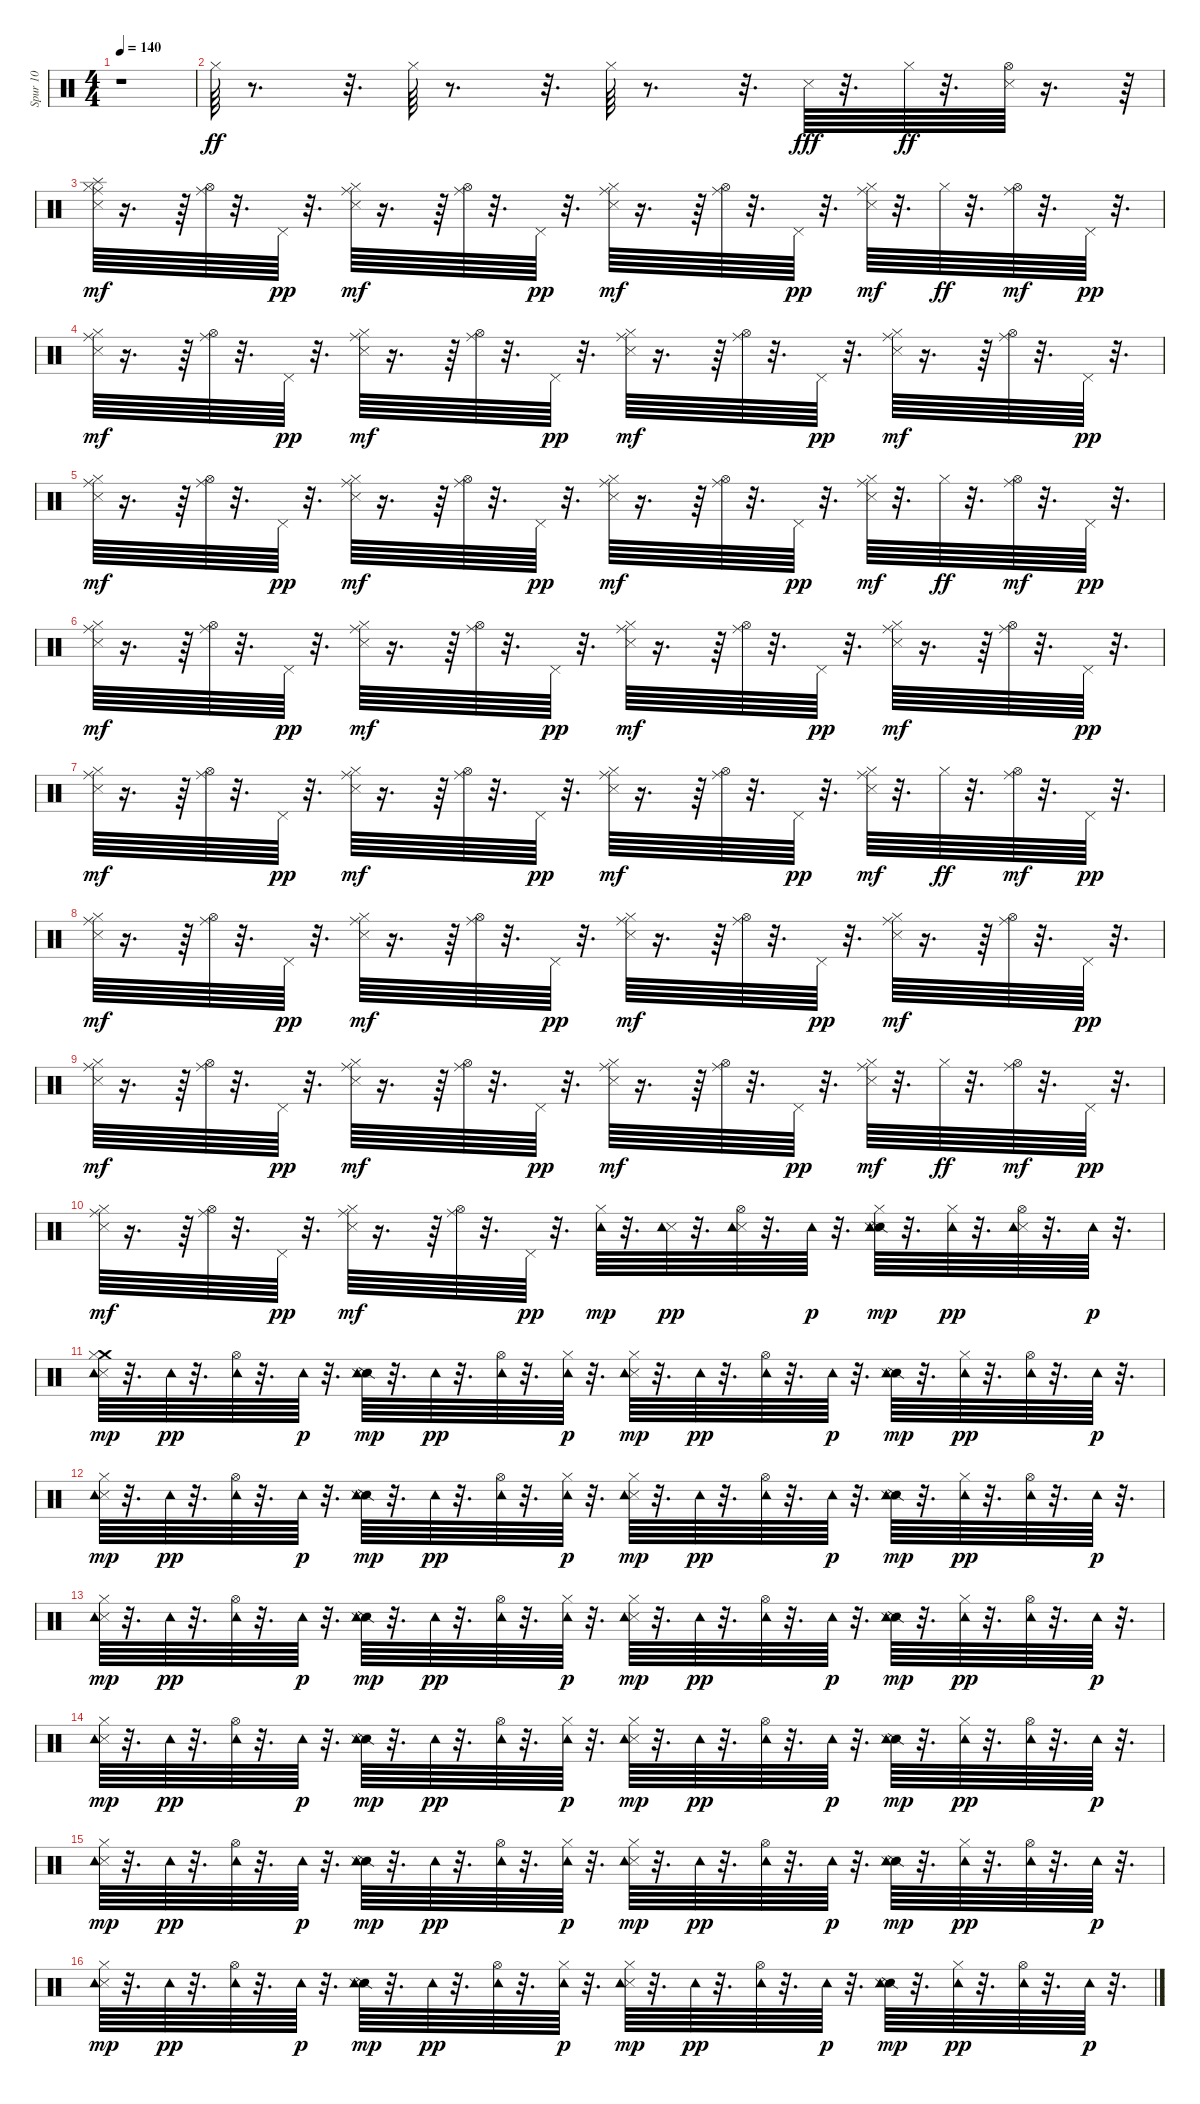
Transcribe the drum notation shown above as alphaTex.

\track ("Spur 10" "Spur 10") {instrument percussion}
\staff {score}
\articulation defaults
\ts (4 4)
\tempo 140
\clef neutral
\ks c
r.1{dy ff} |
"Hi-Hat (closed)".64 r.8{d} r.32{d} "Hi-Hat (closed)".64 r.8{d} r.32{d} "Hi-Hat (closed)".64 r.8{d} r.32{d} "Metronome (hit)".64{dy fff} r.32{d} "Hi-Hat (closed)".64{dy ff} r.32{d} ("Metronome (hit)" "Hi-Hat (open)").64 r.16{d} r.64 |
("Splash (hit)" "Metronome (hit)" "Hi-Hat (closed)" "Ride (middle)").64{dy mf} r.16{d} r.64 ("Hi-Hat (open)" "Ride (middle)").64 r.32{d} "Pedal Hi-Hat (hit)".64{dy pp} r.32{d} ("Metronome (hit)" "Hi-Hat (closed)" "Ride (middle)").64{dy mf} r.16{d} r.64 ("Hi-Hat (open)" "Ride (middle)").64 r.32{d} "Pedal Hi-Hat (hit)".64{dy pp} r.32{d} ("Metronome (hit)" "Hi-Hat (closed)" "Ride (middle)").64{dy mf} r.16{d} r.64 ("Hi-Hat (open)" "Ride (middle)").64 r.32{d} "Pedal Hi-Hat (hit)".64{dy pp} r.32{d} ("Metronome (hit)" "Hi-Hat (closed)" "Ride (middle)").64{dy mf} r.32{d} "Hi-Hat (closed)".64{dy ff} r.32{d} ("Hi-Hat (open)" "Ride (middle)").64{dy mf} r.32{d} "Pedal Hi-Hat (hit)".64{dy pp} r.32{d} |
("Metronome (hit)" "Hi-Hat (closed)" "Ride (middle)").64{dy mf} r.16{d} r.64 ("Hi-Hat (open)" "Ride (middle)").64 r.32{d} "Pedal Hi-Hat (hit)".64{dy pp} r.32{d} ("Metronome (hit)" "Hi-Hat (closed)" "Ride (middle)").64{dy mf} r.16{d} r.64 ("Hi-Hat (open)" "Ride (middle)").64 r.32{d} "Pedal Hi-Hat (hit)".64{dy pp} r.32{d} ("Metronome (hit)" "Hi-Hat (closed)" "Ride (middle)").64{dy mf} r.16{d} r.64 ("Hi-Hat (open)" "Ride (middle)").64 r.32{d} "Pedal Hi-Hat (hit)".64{dy pp} r.32{d} ("Metronome (hit)" "Hi-Hat (closed)" "Ride (middle)").64{dy mf} r.16{d} r.64 ("Hi-Hat (open)" "Ride (middle)").64 r.32{d} "Pedal Hi-Hat (hit)".64{dy pp} r.32{d} |
("Metronome (hit)" "Hi-Hat (closed)" "Ride (middle)").64{dy mf} r.16{d} r.64 ("Hi-Hat (open)" "Ride (middle)").64 r.32{d} "Pedal Hi-Hat (hit)".64{dy pp} r.32{d} ("Metronome (hit)" "Hi-Hat (closed)" "Ride (middle)").64{dy mf} r.16{d} r.64 ("Hi-Hat (open)" "Ride (middle)").64 r.32{d} "Pedal Hi-Hat (hit)".64{dy pp} r.32{d} ("Metronome (hit)" "Hi-Hat (closed)" "Ride (middle)").64{dy mf} r.16{d} r.64 ("Hi-Hat (open)" "Ride (middle)").64 r.32{d} "Pedal Hi-Hat (hit)".64{dy pp} r.32{d} ("Metronome (hit)" "Hi-Hat (closed)" "Ride (middle)").64{dy mf} r.32{d} "Hi-Hat (closed)".64{dy ff} r.32{d} ("Hi-Hat (open)" "Ride (middle)").64{dy mf} r.32{d} "Pedal Hi-Hat (hit)".64{dy pp} r.32{d} |
("Metronome (hit)" "Hi-Hat (closed)" "Ride (middle)").64{dy mf} r.16{d} r.64 ("Hi-Hat (open)" "Ride (middle)").64 r.32{d} "Pedal Hi-Hat (hit)".64{dy pp} r.32{d} ("Metronome (hit)" "Hi-Hat (closed)" "Ride (middle)").64{dy mf} r.16{d} r.64 ("Hi-Hat (open)" "Ride (middle)").64 r.32{d} "Pedal Hi-Hat (hit)".64{dy pp} r.32{d} ("Metronome (hit)" "Hi-Hat (closed)" "Ride (middle)").64{dy mf} r.16{d} r.64 ("Hi-Hat (open)" "Ride (middle)").64 r.32{d} "Pedal Hi-Hat (hit)".64{dy pp} r.32{d} ("Metronome (hit)" "Hi-Hat (closed)" "Ride (middle)").64{dy mf} r.16{d} r.64 ("Hi-Hat (open)" "Ride (middle)").64 r.32{d} "Pedal Hi-Hat (hit)".64{dy pp} r.32{d} |
("Metronome (hit)" "Hi-Hat (closed)" "Ride (middle)").64{dy mf} r.16{d} r.64 ("Hi-Hat (open)" "Ride (middle)").64 r.32{d} "Pedal Hi-Hat (hit)".64{dy pp} r.32{d} ("Metronome (hit)" "Hi-Hat (closed)" "Ride (middle)").64{dy mf} r.16{d} r.64 ("Hi-Hat (open)" "Ride (middle)").64 r.32{d} "Pedal Hi-Hat (hit)".64{dy pp} r.32{d} ("Metronome (hit)" "Hi-Hat (closed)" "Ride (middle)").64{dy mf} r.16{d} r.64 ("Hi-Hat (open)" "Ride (middle)").64 r.32{d} "Pedal Hi-Hat (hit)".64{dy pp} r.32{d} ("Metronome (hit)" "Hi-Hat (closed)" "Ride (middle)").64{dy mf} r.32{d} "Hi-Hat (closed)".64{dy ff} r.32{d} ("Hi-Hat (open)" "Ride (middle)").64{dy mf} r.32{d} "Pedal Hi-Hat (hit)".64{dy pp} r.32{d} |
("Metronome (hit)" "Hi-Hat (closed)" "Ride (middle)").64{dy mf} r.16{d} r.64 ("Hi-Hat (open)" "Ride (middle)").64 r.32{d} "Pedal Hi-Hat (hit)".64{dy pp} r.32{d} ("Metronome (hit)" "Hi-Hat (closed)" "Ride (middle)").64{dy mf} r.16{d} r.64 ("Hi-Hat (open)" "Ride (middle)").64 r.32{d} "Pedal Hi-Hat (hit)".64{dy pp} r.32{d} ("Metronome (hit)" "Hi-Hat (closed)" "Ride (middle)").64{dy mf} r.16{d} r.64 ("Hi-Hat (open)" "Ride (middle)").64 r.32{d} "Pedal Hi-Hat (hit)".64{dy pp} r.32{d} ("Metronome (hit)" "Hi-Hat (closed)" "Ride (middle)").64{dy mf} r.16{d} r.64 ("Hi-Hat (open)" "Ride (middle)").64 r.32{d} "Pedal Hi-Hat (hit)".64{dy pp} r.32{d} |
("Metronome (hit)" "Hi-Hat (closed)" "Ride (middle)").64{dy mf} r.16{d} r.64 ("Hi-Hat (open)" "Ride (middle)").64 r.32{d} "Pedal Hi-Hat (hit)".64{dy pp} r.32{d} ("Metronome (hit)" "Hi-Hat (closed)" "Ride (middle)").64{dy mf} r.16{d} r.64 ("Hi-Hat (open)" "Ride (middle)").64 r.32{d} "Pedal Hi-Hat (hit)".64{dy pp} r.32{d} ("Metronome (hit)" "Hi-Hat (closed)" "Ride (middle)").64{dy mf} r.16{d} r.64 ("Hi-Hat (open)" "Ride (middle)").64 r.32{d} "Pedal Hi-Hat (hit)".64{dy pp} r.32{d} ("Metronome (hit)" "Hi-Hat (closed)" "Ride (middle)").64{dy mf} r.32{d} "Hi-Hat (closed)".64{dy ff} r.32{d} ("Hi-Hat (open)" "Ride (middle)").64{dy mf} r.32{d} "Pedal Hi-Hat (hit)".64{dy pp} r.32{d} |
("Metronome (hit)" "Hi-Hat (closed)" "Ride (middle)").64{dy mf} r.16{d} r.64 ("Hi-Hat (open)" "Ride (middle)").64 r.32{d} "Pedal Hi-Hat (hit)".64{dy pp} r.32{d} ("Metronome (hit)" "Hi-Hat (closed)" "Ride (middle)").64{dy mf} r.16{d} r.64 ("Hi-Hat (open)" "Ride (middle)").64 r.32{d} "Pedal Hi-Hat (hit)".64{dy pp} r.32{d} ("Hi-Hat (closed)" "Tambourine (hit)").64{dy mp} r.32{d} ("Metronome (hit)" "Tambourine (hit)").64{dy pp} r.32{d} ("Metronome (hit)" "Hi-Hat (open)" "Tambourine (hit)").64 r.32{d} "Tambourine (hit)".64{dy p} r.32{d} ("Snare (side stick) 2" "Metronome (hit)" "Hi-Hat (closed)" "Tambourine (hit)").64{dy mp} r.32{d} ("Hi-Hat (closed)" "Tambourine (hit)").64{dy pp} r.32{d} ("Metronome (hit)" "Hi-Hat (open)" "Tambourine (hit)").64 r.32{d} "Tambourine (hit)".64{dy p} r.32{d} |
("Crash medium (hit)" "Metronome (hit)" "Hi-Hat (closed)" "Tambourine (hit)").64{dy mp} r.32{d} "Tambourine (hit)".64{dy pp} r.32{d} ("Hi-Hat (open)" "Tambourine (hit)").64 r.32{d} "Tambourine (hit)".64{dy p} r.32{d} ("Snare (side stick) 2" "Metronome (hit)" "Tambourine (hit)").64{dy mp} r.32{d} "Tambourine (hit)".64{dy pp} r.32{d} ("Hi-Hat (open)" "Tambourine (hit)").64 r.32{d} ("Hi-Hat (closed)" "Tambourine (hit)").64{dy p} r.32{d} ("Metronome (hit)" "Hi-Hat (closed)" "Tambourine (hit)").64{dy mp} r.32{d} "Tambourine (hit)".64{dy pp} r.32{d} ("Hi-Hat (open)" "Tambourine (hit)").64 r.32{d} "Tambourine (hit)".64{dy p} r.32{d} ("Snare (side stick) 2" "Metronome (hit)" "Tambourine (hit)").64{dy mp} r.32{d} ("Hi-Hat (closed)" "Tambourine (hit)").64{dy pp} r.32{d} ("Hi-Hat (open)" "Tambourine (hit)").64 r.32{d} "Tambourine (hit)".64{dy p} r.32{d} |
("Metronome (hit)" "Hi-Hat (closed)" "Tambourine (hit)").64{dy mp} r.32{d} "Tambourine (hit)".64{dy pp} r.32{d} ("Hi-Hat (open)" "Tambourine (hit)").64 r.32{d} "Tambourine (hit)".64{dy p} r.32{d} ("Snare (side stick) 2" "Metronome (hit)" "Tambourine (hit)").64{dy mp} r.32{d} "Tambourine (hit)".64{dy pp} r.32{d} ("Hi-Hat (open)" "Tambourine (hit)").64 r.32{d} ("Hi-Hat (closed)" "Tambourine (hit)").64{dy p} r.32{d} ("Metronome (hit)" "Hi-Hat (closed)" "Tambourine (hit)").64{dy mp} r.32{d} "Tambourine (hit)".64{dy pp} r.32{d} ("Hi-Hat (open)" "Tambourine (hit)").64 r.32{d} "Tambourine (hit)".64{dy p} r.32{d} ("Snare (side stick) 2" "Metronome (hit)" "Tambourine (hit)").64{dy mp} r.32{d} ("Hi-Hat (closed)" "Tambourine (hit)").64{dy pp} r.32{d} ("Hi-Hat (open)" "Tambourine (hit)").64 r.32{d} "Tambourine (hit)".64{dy p} r.32{d} |
("Metronome (hit)" "Hi-Hat (closed)" "Tambourine (hit)").64{dy mp} r.32{d} "Tambourine (hit)".64{dy pp} r.32{d} ("Hi-Hat (open)" "Tambourine (hit)").64 r.32{d} "Tambourine (hit)".64{dy p} r.32{d} ("Snare (side stick) 2" "Metronome (hit)" "Tambourine (hit)").64{dy mp} r.32{d} "Tambourine (hit)".64{dy pp} r.32{d} ("Hi-Hat (open)" "Tambourine (hit)").64 r.32{d} ("Hi-Hat (closed)" "Tambourine (hit)").64{dy p} r.32{d} ("Metronome (hit)" "Hi-Hat (closed)" "Tambourine (hit)").64{dy mp} r.32{d} "Tambourine (hit)".64{dy pp} r.32{d} ("Hi-Hat (open)" "Tambourine (hit)").64 r.32{d} "Tambourine (hit)".64{dy p} r.32{d} ("Snare (side stick) 2" "Metronome (hit)" "Tambourine (hit)").64{dy mp} r.32{d} ("Hi-Hat (closed)" "Tambourine (hit)").64{dy pp} r.32{d} ("Hi-Hat (open)" "Tambourine (hit)").64 r.32{d} "Tambourine (hit)".64{dy p} r.32{d} |
("Metronome (hit)" "Hi-Hat (closed)" "Tambourine (hit)").64{dy mp} r.32{d} "Tambourine (hit)".64{dy pp} r.32{d} ("Hi-Hat (open)" "Tambourine (hit)").64 r.32{d} "Tambourine (hit)".64{dy p} r.32{d} ("Snare (side stick) 2" "Metronome (hit)" "Tambourine (hit)").64{dy mp} r.32{d} "Tambourine (hit)".64{dy pp} r.32{d} ("Hi-Hat (open)" "Tambourine (hit)").64 r.32{d} ("Hi-Hat (closed)" "Tambourine (hit)").64{dy p} r.32{d} ("Metronome (hit)" "Hi-Hat (closed)" "Tambourine (hit)").64{dy mp} r.32{d} "Tambourine (hit)".64{dy pp} r.32{d} ("Hi-Hat (open)" "Tambourine (hit)").64 r.32{d} "Tambourine (hit)".64{dy p} r.32{d} ("Snare (side stick) 2" "Metronome (hit)" "Tambourine (hit)").64{dy mp} r.32{d} ("Hi-Hat (closed)" "Tambourine (hit)").64{dy pp} r.32{d} ("Hi-Hat (open)" "Tambourine (hit)").64 r.32{d} "Tambourine (hit)".64{dy p} r.32{d} |
("Metronome (hit)" "Hi-Hat (closed)" "Tambourine (hit)").64{dy mp} r.32{d} "Tambourine (hit)".64{dy pp} r.32{d} ("Hi-Hat (open)" "Tambourine (hit)").64 r.32{d} "Tambourine (hit)".64{dy p} r.32{d} ("Snare (side stick) 2" "Metronome (hit)" "Tambourine (hit)").64{dy mp} r.32{d} "Tambourine (hit)".64{dy pp} r.32{d} ("Hi-Hat (open)" "Tambourine (hit)").64 r.32{d} ("Hi-Hat (closed)" "Tambourine (hit)").64{dy p} r.32{d} ("Metronome (hit)" "Hi-Hat (closed)" "Tambourine (hit)").64{dy mp} r.32{d} "Tambourine (hit)".64{dy pp} r.32{d} ("Hi-Hat (open)" "Tambourine (hit)").64 r.32{d} "Tambourine (hit)".64{dy p} r.32{d} ("Snare (side stick) 2" "Metronome (hit)" "Tambourine (hit)").64{dy mp} r.32{d} ("Hi-Hat (closed)" "Tambourine (hit)").64{dy pp} r.32{d} ("Hi-Hat (open)" "Tambourine (hit)").64 r.32{d} "Tambourine (hit)".64{dy p} r.32{d} |
("Metronome (hit)" "Hi-Hat (closed)" "Tambourine (hit)").64{dy mp} r.32{d} "Tambourine (hit)".64{dy pp} r.32{d} ("Hi-Hat (open)" "Tambourine (hit)").64 r.32{d} "Tambourine (hit)".64{dy p} r.32{d} ("Snare (side stick) 2" "Metronome (hit)" "Tambourine (hit)").64{dy mp} r.32{d} "Tambourine (hit)".64{dy pp} r.32{d} ("Hi-Hat (open)" "Tambourine (hit)").64 r.32{d} ("Hi-Hat (closed)" "Tambourine (hit)").64{dy p} r.32{d} ("Metronome (hit)" "Hi-Hat (closed)" "Tambourine (hit)").64{dy mp} r.32{d} "Tambourine (hit)".64{dy pp} r.32{d} ("Hi-Hat (open)" "Tambourine (hit)").64 r.32{d} "Tambourine (hit)".64{dy p} r.32{d} ("Snare (side stick) 2" "Metronome (hit)" "Tambourine (hit)").64{dy mp} r.32{d} ("Hi-Hat (closed)" "Tambourine (hit)").64{dy pp} r.32{d} ("Hi-Hat (open)" "Tambourine (hit)").64 r.32{d} "Tambourine (hit)".64{dy p} r.32{d}
